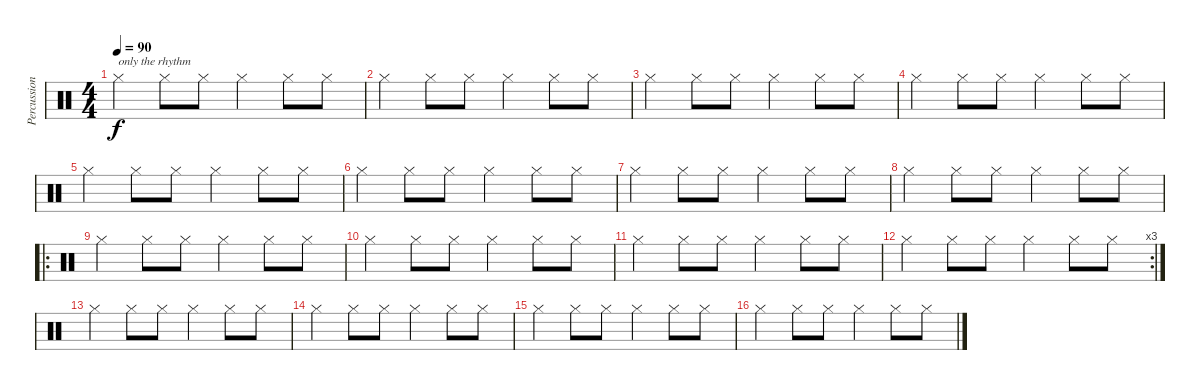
\track ("Percussion" "Percussion") {instrument percussion}
\staff {score}
\articulation defaults
\ts (4 4)
\tempo 90
\clef neutral
\ks c "Hi-Hat (closed)".4{txt "only the rhythm" dy f} "Hi-Hat (closed)".8 "Hi-Hat (closed)".8 "Hi-Hat (closed)".4 "Hi-Hat (closed)".8 "Hi-Hat (closed)".8
|
"Hi-Hat (closed)".4 "Hi-Hat (closed)".8 "Hi-Hat (closed)".8 "Hi-Hat (closed)".4 "Hi-Hat (closed)".8 "Hi-Hat (closed)".8 |
"Hi-Hat (closed)".4 "Hi-Hat (closed)".8 "Hi-Hat (closed)".8 "Hi-Hat (closed)".4 "Hi-Hat (closed)".8 "Hi-Hat (closed)".8 |
"Hi-Hat (closed)".4 "Hi-Hat (closed)".8 "Hi-Hat (closed)".8 "Hi-Hat (closed)".4 "Hi-Hat (closed)".8 "Hi-Hat (closed)".8 |
"Hi-Hat (closed)".4 "Hi-Hat (closed)".8 "Hi-Hat (closed)".8 "Hi-Hat (closed)".4 "Hi-Hat (closed)".8 "Hi-Hat (closed)".8 |
"Hi-Hat (closed)".4 "Hi-Hat (closed)".8 "Hi-Hat (closed)".8 "Hi-Hat (closed)".4 "Hi-Hat (closed)".8 "Hi-Hat (closed)".8 |
"Hi-Hat (closed)".4 "Hi-Hat (closed)".8 "Hi-Hat (closed)".8 "Hi-Hat (closed)".4 "Hi-Hat (closed)".8 "Hi-Hat (closed)".8 |
"Hi-Hat (closed)".4 "Hi-Hat (closed)".8 "Hi-Hat (closed)".8 "Hi-Hat (closed)".4 "Hi-Hat (closed)".8 "Hi-Hat (closed)".8 |
\ro "Hi-Hat (closed)".4 "Hi-Hat (closed)".8 "Hi-Hat (closed)".8 "Hi-Hat (closed)".4 "Hi-Hat (closed)".8 "Hi-Hat (closed)".8
|
"Hi-Hat (closed)".4 "Hi-Hat (closed)".8 "Hi-Hat (closed)".8 "Hi-Hat (closed)".4 "Hi-Hat (closed)".8 "Hi-Hat (closed)".8 |
"Hi-Hat (closed)".4 "Hi-Hat (closed)".8 "Hi-Hat (closed)".8 "Hi-Hat (closed)".4 "Hi-Hat (closed)".8 "Hi-Hat (closed)".8 |
\rc 3 "Hi-Hat (closed)".4 "Hi-Hat (closed)".8 "Hi-Hat (closed)".8 "Hi-Hat (closed)".4 "Hi-Hat (closed)".8 "Hi-Hat (closed)".8
|
"Hi-Hat (closed)".4 "Hi-Hat (closed)".8 "Hi-Hat (closed)".8 "Hi-Hat (closed)".4 "Hi-Hat (closed)".8 "Hi-Hat (closed)".8 |
"Hi-Hat (closed)".4 "Hi-Hat (closed)".8 "Hi-Hat (closed)".8 "Hi-Hat (closed)".4 "Hi-Hat (closed)".8 "Hi-Hat (closed)".8 |
"Hi-Hat (closed)".4 "Hi-Hat (closed)".8 "Hi-Hat (closed)".8 "Hi-Hat (closed)".4 "Hi-Hat (closed)".8 "Hi-Hat (closed)".8 |
"Hi-Hat (closed)".4 "Hi-Hat (closed)".8 "Hi-Hat (closed)".8 "Hi-Hat (closed)".4 "Hi-Hat (closed)".8 "Hi-Hat (closed)".8
